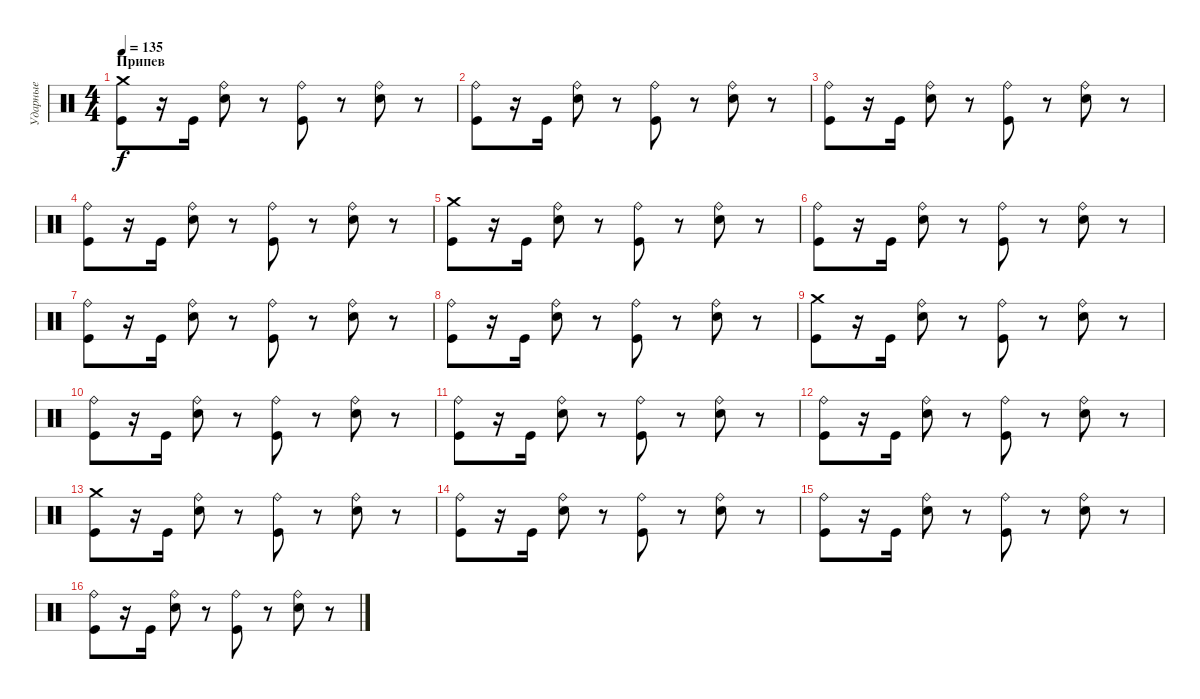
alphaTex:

\track ("Ударные" "Ударные") {instrument percussion}
\staff {score}
\articulation defaults
\ts (4 4)
\section ("" "Припев")
\tempo 135
\clef neutral
\ks c
("Crash medium (hit)" "Kick (hit)").8{dy f} r.16 "Kick (hit)".16 ("Ride (bell)" "Electric Snare (hit)").8 r.8 ("Ride (bell)" "Kick (hit)").8 r.8 ("Ride (bell)" "Electric Snare (hit)").8 r.8 |
("Ride (bell)" "Kick (hit)").8 r.16 "Kick (hit)".16 ("Ride (bell)" "Electric Snare (hit)").8 r.8 ("Ride (bell)" "Kick (hit)").8 r.8 ("Ride (bell)" "Electric Snare (hit)").8 r.8 |
("Ride (bell)" "Kick (hit)").8 r.16 "Kick (hit)".16 ("Ride (bell)" "Electric Snare (hit)").8 r.8 ("Ride (bell)" "Kick (hit)").8 r.8 ("Ride (bell)" "Electric Snare (hit)").8 r.8 |
("Ride (bell)" "Kick (hit)").8 r.16 "Kick (hit)".16 ("Ride (bell)" "Electric Snare (hit)").8 r.8 ("Ride (bell)" "Kick (hit)").8 r.8 ("Ride (bell)" "Electric Snare (hit)").8 r.8 |
("Crash medium (hit)" "Kick (hit)").8 r.16 "Kick (hit)".16 ("Ride (bell)" "Electric Snare (hit)").8 r.8 ("Ride (bell)" "Kick (hit)").8 r.8 ("Ride (bell)" "Electric Snare (hit)").8 r.8 |
("Ride (bell)" "Kick (hit)").8 r.16 "Kick (hit)".16 ("Ride (bell)" "Electric Snare (hit)").8 r.8 ("Ride (bell)" "Kick (hit)").8 r.8 ("Ride (bell)" "Electric Snare (hit)").8 r.8 |
("Ride (bell)" "Kick (hit)").8 r.16 "Kick (hit)".16 ("Ride (bell)" "Electric Snare (hit)").8 r.8 ("Ride (bell)" "Kick (hit)").8 r.8 ("Ride (bell)" "Electric Snare (hit)").8 r.8 |
("Ride (bell)" "Kick (hit)").8 r.16 "Kick (hit)".16 ("Ride (bell)" "Electric Snare (hit)").8 r.8 ("Ride (bell)" "Kick (hit)").8 r.8 ("Ride (bell)" "Electric Snare (hit)").8 r.8 |
("Crash medium (hit)" "Kick (hit)").8 r.16 "Kick (hit)".16 ("Ride (bell)" "Electric Snare (hit)").8 r.8 ("Ride (bell)" "Kick (hit)").8 r.8 ("Ride (bell)" "Electric Snare (hit)").8 r.8 |
("Ride (bell)" "Kick (hit)").8 r.16 "Kick (hit)".16 ("Ride (bell)" "Electric Snare (hit)").8 r.8 ("Ride (bell)" "Kick (hit)").8 r.8 ("Ride (bell)" "Electric Snare (hit)").8 r.8 |
("Ride (bell)" "Kick (hit)").8 r.16 "Kick (hit)".16 ("Ride (bell)" "Electric Snare (hit)").8 r.8 ("Ride (bell)" "Kick (hit)").8 r.8 ("Ride (bell)" "Electric Snare (hit)").8 r.8 |
("Ride (bell)" "Kick (hit)").8 r.16 "Kick (hit)".16 ("Ride (bell)" "Electric Snare (hit)").8 r.8 ("Ride (bell)" "Kick (hit)").8 r.8 ("Ride (bell)" "Electric Snare (hit)").8 r.8 |
("Crash medium (hit)" "Kick (hit)").8 r.16 "Kick (hit)".16 ("Ride (bell)" "Electric Snare (hit)").8 r.8 ("Ride (bell)" "Kick (hit)").8 r.8 ("Ride (bell)" "Electric Snare (hit)").8 r.8 |
("Ride (bell)" "Kick (hit)").8 r.16 "Kick (hit)".16 ("Ride (bell)" "Electric Snare (hit)").8 r.8 ("Ride (bell)" "Kick (hit)").8 r.8 ("Ride (bell)" "Electric Snare (hit)").8 r.8 |
("Ride (bell)" "Kick (hit)").8 r.16 "Kick (hit)".16 ("Ride (bell)" "Electric Snare (hit)").8 r.8 ("Ride (bell)" "Kick (hit)").8 r.8 ("Ride (bell)" "Electric Snare (hit)").8 r.8 |
("Ride (bell)" "Kick (hit)").8 r.16 "Kick (hit)".16 ("Ride (bell)" "Electric Snare (hit)").8 r.8 ("Ride (bell)" "Kick (hit)").8 r.8 ("Ride (bell)" "Electric Snare (hit)").8 r.8
